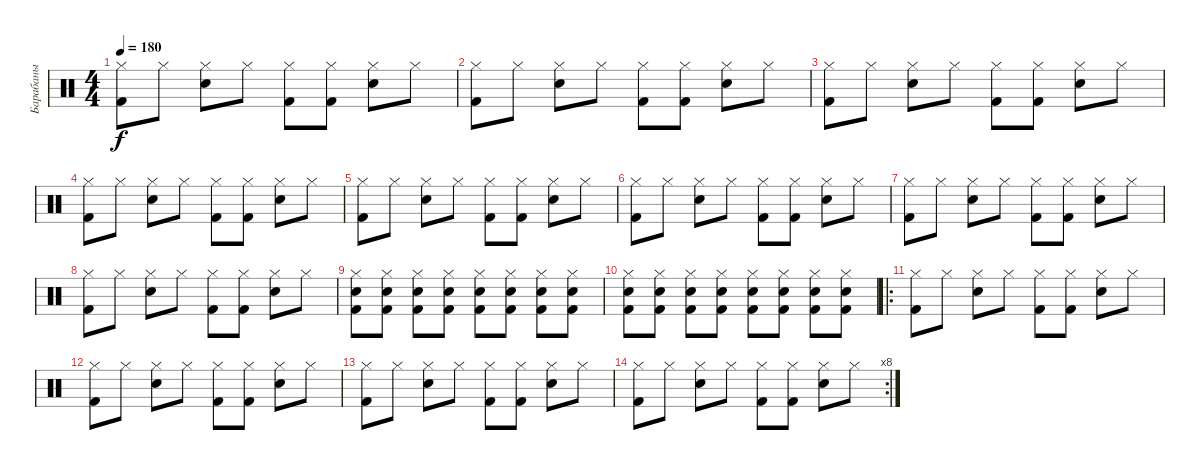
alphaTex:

\track ("Барабаны" "Барабаны") {instrument percussion}
\staff {score}
\articulation defaults
\ts (4 4)
\tempo 180
\clef neutral
\ks c
("Hi-Hat (closed)" "Kick (hit) 2").8{dy f} "Hi-Hat (closed)".8 ("Hi-Hat (closed)" "Electric Snare (hit)").8 "Hi-Hat (closed)".8 ("Hi-Hat (closed)" "Kick (hit) 2").8 ("Hi-Hat (closed)" "Kick (hit) 2").8 ("Hi-Hat (closed)" "Electric Snare (hit)").8 "Hi-Hat (closed)".8 |
("Hi-Hat (closed)" "Kick (hit) 2").8 "Hi-Hat (closed)".8 ("Hi-Hat (closed)" "Electric Snare (hit)").8 "Hi-Hat (closed)".8 ("Hi-Hat (closed)" "Kick (hit) 2").8 ("Hi-Hat (closed)" "Kick (hit) 2").8 ("Hi-Hat (closed)" "Electric Snare (hit)").8 "Hi-Hat (closed)".8 |
("Hi-Hat (closed)" "Kick (hit) 2").8 "Hi-Hat (closed)".8 ("Hi-Hat (closed)" "Electric Snare (hit)").8 "Hi-Hat (closed)".8 ("Hi-Hat (closed)" "Kick (hit) 2").8 ("Hi-Hat (closed)" "Kick (hit) 2").8 ("Hi-Hat (closed)" "Electric Snare (hit)").8 "Hi-Hat (closed)".8 |
("Hi-Hat (closed)" "Kick (hit) 2").8 "Hi-Hat (closed)".8 ("Hi-Hat (closed)" "Electric Snare (hit)").8 "Hi-Hat (closed)".8 ("Hi-Hat (closed)" "Kick (hit) 2").8 ("Hi-Hat (closed)" "Kick (hit) 2").8 ("Hi-Hat (closed)" "Electric Snare (hit)").8 "Hi-Hat (closed)".8 |
("Hi-Hat (closed)" "Kick (hit) 2").8 "Hi-Hat (closed)".8 ("Hi-Hat (closed)" "Electric Snare (hit)").8 "Hi-Hat (closed)".8 ("Hi-Hat (closed)" "Kick (hit) 2").8 ("Hi-Hat (closed)" "Kick (hit) 2").8 ("Hi-Hat (closed)" "Electric Snare (hit)").8 "Hi-Hat (closed)".8 |
("Hi-Hat (closed)" "Kick (hit) 2").8 "Hi-Hat (closed)".8 ("Hi-Hat (closed)" "Electric Snare (hit)").8 "Hi-Hat (closed)".8 ("Hi-Hat (closed)" "Kick (hit) 2").8 ("Hi-Hat (closed)" "Kick (hit) 2").8 ("Hi-Hat (closed)" "Electric Snare (hit)").8 "Hi-Hat (closed)".8 |
("Hi-Hat (closed)" "Kick (hit) 2").8 "Hi-Hat (closed)".8 ("Hi-Hat (closed)" "Electric Snare (hit)").8 "Hi-Hat (closed)".8 ("Hi-Hat (closed)" "Kick (hit) 2").8 ("Hi-Hat (closed)" "Kick (hit) 2").8 ("Hi-Hat (closed)" "Electric Snare (hit)").8 "Hi-Hat (closed)".8 |
("Hi-Hat (closed)" "Kick (hit) 2").8 "Hi-Hat (closed)".8 ("Hi-Hat (closed)" "Electric Snare (hit)").8 "Hi-Hat (closed)".8 ("Hi-Hat (closed)" "Kick (hit) 2").8 ("Hi-Hat (closed)" "Kick (hit) 2").8 ("Hi-Hat (closed)" "Electric Snare (hit)").8 "Hi-Hat (closed)".8 |
("Hi-Hat (closed)" "Kick (hit) 2" "Electric Snare (hit)").8 ("Hi-Hat (closed)" "Kick (hit) 2" "Electric Snare (hit)").8 ("Hi-Hat (closed)" "Kick (hit) 2" "Electric Snare (hit)").8 ("Hi-Hat (closed)" "Kick (hit) 2" "Electric Snare (hit)").8 ("Hi-Hat (closed)" "Kick (hit) 2" "Electric Snare (hit)").8 ("Hi-Hat (closed)" "Kick (hit) 2" "Electric Snare (hit)").8 ("Hi-Hat (closed)" "Kick (hit) 2" "Electric Snare (hit)").8 ("Hi-Hat (closed)" "Kick (hit) 2" "Electric Snare (hit)").8 |
("Hi-Hat (closed)" "Kick (hit) 2" "Electric Snare (hit)").8 ("Hi-Hat (closed)" "Kick (hit) 2" "Electric Snare (hit)").8 ("Hi-Hat (closed)" "Kick (hit) 2" "Electric Snare (hit)").8 ("Hi-Hat (closed)" "Kick (hit) 2" "Electric Snare (hit)").8 ("Hi-Hat (closed)" "Kick (hit) 2" "Electric Snare (hit)").8 ("Hi-Hat (closed)" "Kick (hit) 2" "Electric Snare (hit)").8 ("Hi-Hat (closed)" "Kick (hit) 2" "Electric Snare (hit)").8 ("Hi-Hat (closed)" "Kick (hit) 2" "Electric Snare (hit)").8 |
\ro
("Hi-Hat (closed)" "Kick (hit) 2").8 "Hi-Hat (closed)".8 ("Hi-Hat (closed)" "Electric Snare (hit)").8 "Hi-Hat (closed)".8 ("Hi-Hat (closed)" "Kick (hit) 2").8 ("Hi-Hat (closed)" "Kick (hit) 2").8 ("Hi-Hat (closed)" "Electric Snare (hit)").8 "Hi-Hat (closed)".8 |
("Hi-Hat (closed)" "Kick (hit) 2").8 "Hi-Hat (closed)".8 ("Hi-Hat (closed)" "Electric Snare (hit)").8 "Hi-Hat (closed)".8 ("Hi-Hat (closed)" "Kick (hit) 2").8 ("Hi-Hat (closed)" "Kick (hit) 2").8 ("Hi-Hat (closed)" "Electric Snare (hit)").8 "Hi-Hat (closed)".8 |
("Hi-Hat (closed)" "Kick (hit) 2").8 "Hi-Hat (closed)".8 ("Hi-Hat (closed)" "Electric Snare (hit)").8 "Hi-Hat (closed)".8 ("Hi-Hat (closed)" "Kick (hit) 2").8 ("Hi-Hat (closed)" "Kick (hit) 2").8 ("Hi-Hat (closed)" "Electric Snare (hit)").8 "Hi-Hat (closed)".8 |
\rc 8
("Hi-Hat (closed)" "Kick (hit) 2").8 "Hi-Hat (closed)".8 ("Hi-Hat (closed)" "Electric Snare (hit)").8 "Hi-Hat (closed)".8 ("Hi-Hat (closed)" "Kick (hit) 2").8 ("Hi-Hat (closed)" "Kick (hit) 2").8 ("Hi-Hat (closed)" "Electric Snare (hit)").8 "Hi-Hat (closed)".8
